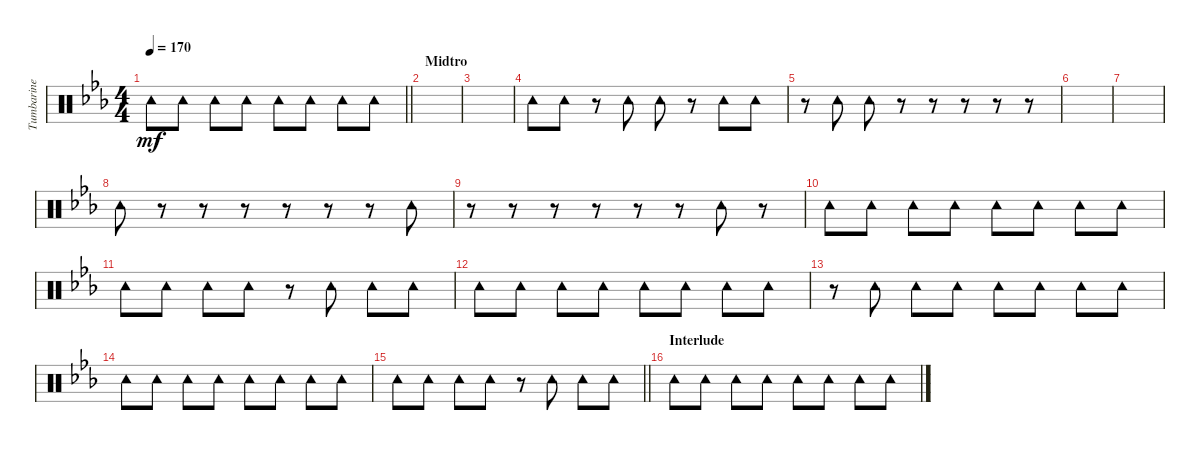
\track ("Tumbarine" "Tumbarine") {solo instrument percussion}
\staff {score}
\articulation defaults
\ts (4 4)
\tempo 170
\clef neutral
\barLineRight lightlight
\ks eb "Tambourine (hit)".8{dy mf} "Tambourine (hit)".8 "Tambourine (hit)".8 "Tambourine (hit)".8 "Tambourine (hit)".8 "Tambourine (hit)".8 "Tambourine (hit)".8 "Tambourine (hit)".8
|
\section ("" "Midtro")
|
|
"Tambourine (hit)".8 "Tambourine (hit)".8 r.8 "Tambourine (hit)".8 "Tambourine (hit)".8 r.8 "Tambourine (hit)".8 "Tambourine (hit)".8 |
r.8 "Tambourine (hit)".8 "Tambourine (hit)".8 r.8 r.8 r.8 r.8 r.8 |
|
|
"Tambourine (hit)".8 r.8 r.8 r.8 r.8 r.8 r.8 "Tambourine (hit)".8 |
r.8 r.8 r.8 r.8 r.8 r.8 "Tambourine (hit)".8 r.8 |
"Tambourine (hit)".8 "Tambourine (hit)".8 "Tambourine (hit)".8 "Tambourine (hit)".8 "Tambourine (hit)".8 "Tambourine (hit)".8 "Tambourine (hit)".8 "Tambourine (hit)".8 |
"Tambourine (hit)".8 "Tambourine (hit)".8 "Tambourine (hit)".8 "Tambourine (hit)".8 r.8 "Tambourine (hit)".8 "Tambourine (hit)".8 "Tambourine (hit)".8 |
"Tambourine (hit)".8 "Tambourine (hit)".8 "Tambourine (hit)".8 "Tambourine (hit)".8 "Tambourine (hit)".8 "Tambourine (hit)".8 "Tambourine (hit)".8 "Tambourine (hit)".8 |
r.8 "Tambourine (hit)".8 "Tambourine (hit)".8 "Tambourine (hit)".8 "Tambourine (hit)".8 "Tambourine (hit)".8 "Tambourine (hit)".8 "Tambourine (hit)".8 |
"Tambourine (hit)".8 "Tambourine (hit)".8 "Tambourine (hit)".8 "Tambourine (hit)".8 "Tambourine (hit)".8 "Tambourine (hit)".8 "Tambourine (hit)".8 "Tambourine (hit)".8 |
\barLineRight lightlight "Tambourine (hit)".8 "Tambourine (hit)".8 "Tambourine (hit)".8 "Tambourine (hit)".8
r.8 "Tambourine (hit)".8 "Tambourine (hit)".8 "Tambourine (hit)".8 |
\section ("" "Interlude")
"Tambourine (hit)".8 "Tambourine (hit)".8 "Tambourine (hit)".8 "Tambourine (hit)".8 "Tambourine (hit)".8 "Tambourine (hit)".8 "Tambourine (hit)".8 "Tambourine (hit)".8
